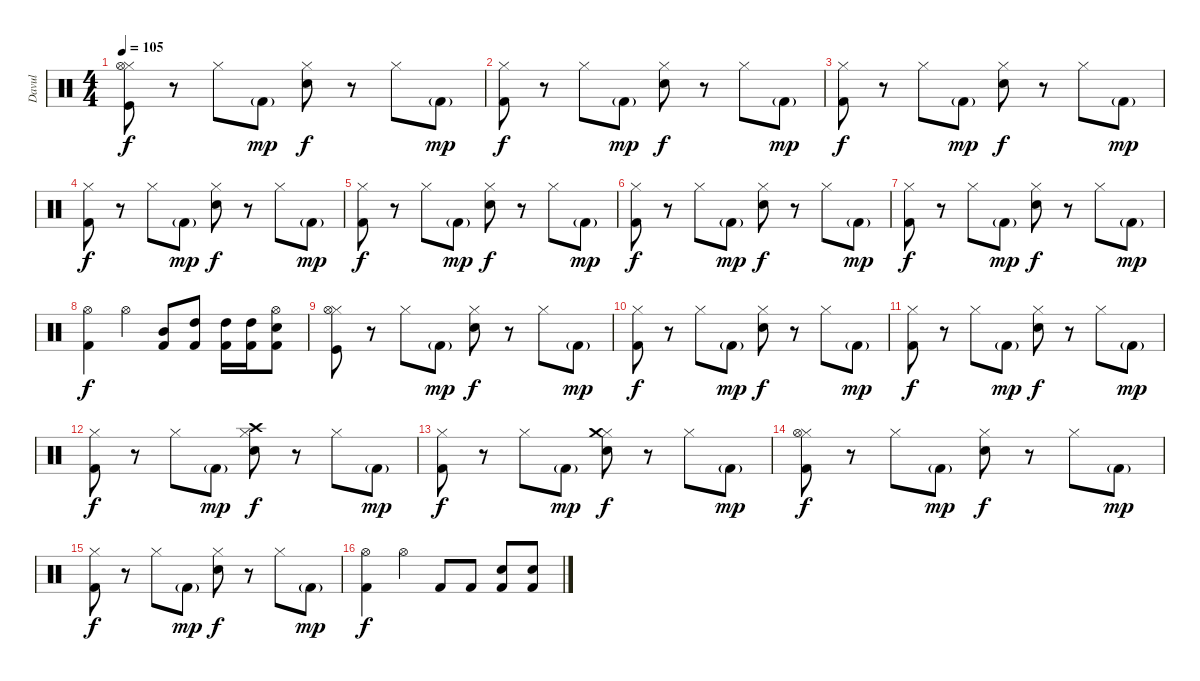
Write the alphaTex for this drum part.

\track ("Davul" "Davul") {instrument percussion}
\staff {score}
\articulation defaults
\ts (4 4)
\tempo 105
\clef neutral
\ks c
("Hi-Hat (closed)" "Kick (hit)" "Hi-Hat (open)").8{dy f} r.8 "Hi-Hat (closed)".8 "Kick (hit) 2"{g}.8{dy mp} ("Hi-Hat (closed)" "Electric Snare (hit)").8{dy f} r.8 "Hi-Hat (closed)".8 "Kick (hit) 2"{g}.8{dy mp} |
("Hi-Hat (closed)" "Kick (hit) 2").8{dy f} r.8 "Hi-Hat (closed)".8 "Kick (hit) 2"{g}.8{dy mp} ("Hi-Hat (closed)" "Electric Snare (hit)").8{dy f} r.8 "Hi-Hat (closed)".8 "Kick (hit) 2"{g}.8{dy mp} |
("Hi-Hat (closed)" "Kick (hit) 2").8{dy f} r.8 "Hi-Hat (closed)".8 "Kick (hit) 2"{g}.8{dy mp} ("Hi-Hat (closed)" "Electric Snare (hit)").8{dy f} r.8 "Hi-Hat (closed)".8 "Kick (hit) 2"{g}.8{dy mp} |
("Hi-Hat (closed)" "Kick (hit) 2").8{dy f} r.8 "Hi-Hat (closed)".8 "Kick (hit) 2"{g}.8{dy mp} ("Hi-Hat (closed)" "Electric Snare (hit)").8{dy f} r.8 "Hi-Hat (closed)".8 "Kick (hit) 2"{g}.8{dy mp} |
("Hi-Hat (closed)" "Kick (hit) 2").8{dy f} r.8 "Hi-Hat (closed)".8 "Kick (hit) 2"{g}.8{dy mp} ("Hi-Hat (closed)" "Electric Snare (hit)").8{dy f} r.8 "Hi-Hat (closed)".8 "Kick (hit) 2"{g}.8{dy mp} |
("Hi-Hat (closed)" "Kick (hit) 2").8{dy f} r.8 "Hi-Hat (closed)".8 "Kick (hit) 2"{g}.8{dy mp} ("Hi-Hat (closed)" "Electric Snare (hit)").8{dy f} r.8 "Hi-Hat (closed)".8 "Kick (hit) 2"{g}.8{dy mp} |
("Hi-Hat (closed)" "Kick (hit) 2").8{dy f} r.8 "Hi-Hat (closed)".8 "Kick (hit) 2"{g}.8{dy mp} ("Hi-Hat (closed)" "Electric Snare (hit)").8{dy f} r.8 "Hi-Hat (closed)".8 "Kick (hit) 2"{g}.8{dy mp} |
("Hi-Hat (open)" "Kick (hit) 2").4{dy f volume 16} "Hi-Hat (open)".4 ("Kick (hit) 2" "Mid Tom (hit)").8 ("Kick (hit) 2" "High Tom (hit)").8 ("Kick (hit) 2" "High Tom (hit)").16 ("Kick (hit) 2" "High Tom (hit)").16 ("Kick (hit) 2" "Snare (hit) 2" "Hi-Hat (open)").8 |
("Hi-Hat (closed)" "Kick (hit)" "Hi-Hat (open)").8 r.8 "Hi-Hat (closed)".8 "Kick (hit) 2"{g}.8{dy mp} ("Hi-Hat (closed)" "Electric Snare (hit)").8{dy f} r.8 "Hi-Hat (closed)".8 "Kick (hit) 2"{g}.8{dy mp} |
("Hi-Hat (closed)" "Kick (hit) 2").8{dy f} r.8 "Hi-Hat (closed)".8 "Kick (hit) 2"{g}.8{dy mp} ("Hi-Hat (closed)" "Electric Snare (hit)").8{dy f} r.8 "Hi-Hat (closed)".8 "Kick (hit) 2"{g}.8{dy mp} |
("Hi-Hat (closed)" "Kick (hit) 2").8{dy f} r.8 "Hi-Hat (closed)".8 "Kick (hit) 2"{g}.8{dy mp} ("Hi-Hat (closed)" "Electric Snare (hit)").8{dy f} r.8 "Hi-Hat (closed)".8 "Kick (hit) 2"{g}.8{dy mp} |
("Hi-Hat (closed)" "Kick (hit) 2").8{dy f} r.8 "Hi-Hat (closed)".8 "Kick (hit) 2"{g}.8{dy mp} ("Hi-Hat (closed)" "Crash high (hit)" "Electric Snare (hit)").8{dy f} r.8 "Hi-Hat (closed)".8 "Kick (hit) 2"{g}.8{dy mp} |
("Hi-Hat (closed)" "Kick (hit) 2").8{dy f} r.8 "Hi-Hat (closed)".8 "Kick (hit) 2"{g}.8{dy mp} ("Hi-Hat (closed)" "Crash medium (hit)" "Electric Snare (hit)").8{dy f} r.8 "Hi-Hat (closed)".8 "Kick (hit) 2"{g}.8{dy mp} |
("Hi-Hat (closed)" "Hi-Hat (open)" "Kick (hit) 2").8{dy f} r.8 "Hi-Hat (closed)".8 "Kick (hit) 2"{g}.8{dy mp} ("Hi-Hat (closed)" "Electric Snare (hit)").8{dy f} r.8 "Hi-Hat (closed)".8 "Kick (hit) 2"{g}.8{dy mp} |
("Hi-Hat (closed)" "Kick (hit) 2").8{dy f} r.8 "Hi-Hat (closed)".8 "Kick (hit) 2"{g}.8{dy mp} ("Hi-Hat (closed)" "Electric Snare (hit)").8{dy f} r.8 "Hi-Hat (closed)".8 "Kick (hit) 2"{g}.8{dy mp} |
("Hi-Hat (open)" "Kick (hit) 2").4{dy f volume 16} "Hi-Hat (open)".4 "Kick (hit) 2".8 "Kick (hit) 2".8 ("Kick (hit) 2" "Snare (hit) 2").8 ("Kick (hit) 2" "Snare (hit) 2").8
